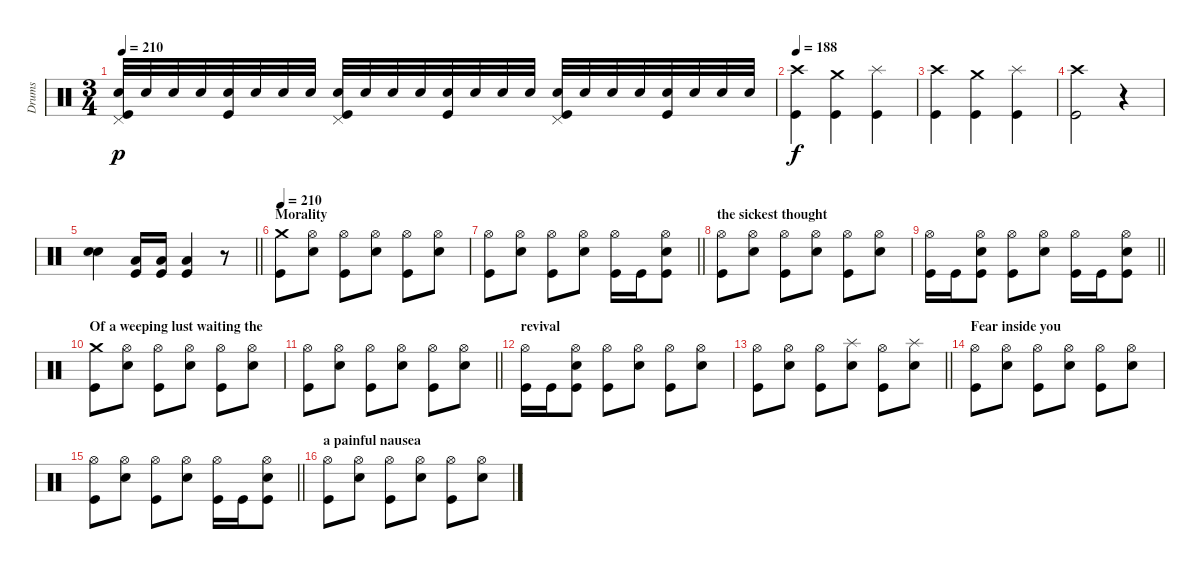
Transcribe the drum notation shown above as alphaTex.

\track ("Drums" "Drums") {instrument percussion}
\staff {score}
\articulation defaults
\ts (3 4)
\tempo 210
\clef neutral
\ks c
("Snare (hit) 2" "Pedal Hi-Hat (hit)" "Kick (hit)").32{dy p} "Snare (hit) 2".32 "Snare (hit) 2".32 "Snare (hit) 2".32 ("Snare (hit) 2" "Kick (hit)").32 "Snare (hit) 2".32 "Snare (hit) 2".32 "Snare (hit) 2".32 ("Snare (hit) 2" "Pedal Hi-Hat (hit)" "Kick (hit)").32 "Snare (hit) 2".32 "Snare (hit) 2".32 "Snare (hit) 2".32 ("Snare (hit) 2" "Kick (hit)").32 "Snare (hit) 2".32 "Snare (hit) 2".32 "Snare (hit) 2".32 ("Snare (hit) 2" "Pedal Hi-Hat (hit)" "Kick (hit)").32 "Snare (hit) 2".32 "Snare (hit) 2".32 "Snare (hit) 2".32 ("Snare (hit) 2" "Kick (hit)").32 "Snare (hit) 2".32 "Snare (hit) 2".32 "Snare (hit) 2".32 |
\tempo 188
("Crash high (hit)" "Kick (hit)").4{dy f} ("Crash medium (hit)" "Kick (hit)").4 ("Splash (hit)" "Kick (hit)").4 |
("Crash high (hit)" "Kick (hit)").4 ("Crash medium (hit)" "Kick (hit)").4 ("Splash (hit)" "Kick (hit)").4 |
("Crash high (hit)" "Kick (hit)").2 r.4 |
\barLineRight lightlight
("Snare (hit) 2" "Snare (hit) 2").4 ("Low Tom (hit)" "Kick (hit)").16 ("Low Tom (hit)" "Kick (hit)").16 ("Low Tom (hit)" "Kick (hit)").4 r.8 |
\section ("" "Morality")
\tempo 210
("Crash medium (hit)" "Kick (hit)").8 ("Hi-Hat (open)" "Snare (hit) 2").8 ("Hi-Hat (open)" "Kick (hit)").8 ("Hi-Hat (open)" "Snare (hit) 2").8 ("Hi-Hat (open)" "Kick (hit)").8 ("Hi-Hat (open)" "Snare (hit) 2").8 |
\barLineRight lightlight
("Hi-Hat (open)" "Kick (hit)").8 ("Hi-Hat (open)" "Snare (hit) 2").8 ("Hi-Hat (open)" "Kick (hit)").8 ("Hi-Hat (open)" "Snare (hit) 2").8 ("Hi-Hat (open)" "Kick (hit)").16 "Kick (hit)".16 ("Hi-Hat (open)" "Snare (hit) 2" "Kick (hit)").8 |
\section ("" "the sickest thought")
("Hi-Hat (open)" "Kick (hit)").8 ("Hi-Hat (open)" "Snare (hit) 2").8 ("Hi-Hat (open)" "Kick (hit)").8 ("Hi-Hat (open)" "Snare (hit) 2").8 ("Hi-Hat (open)" "Kick (hit)").8 ("Hi-Hat (open)" "Snare (hit) 2").8 |
\barLineRight lightlight
("Hi-Hat (open)" "Kick (hit)").16 "Kick (hit)".16 ("Hi-Hat (open)" "Snare (hit) 2" "Kick (hit)").8 ("Hi-Hat (open)" "Kick (hit)").8 ("Hi-Hat (open)" "Snare (hit) 2").8 ("Hi-Hat (open)" "Kick (hit)").16 "Kick (hit)".16 ("Hi-Hat (open)" "Snare (hit) 2" "Kick (hit)").8 |
\section ("" "Of a weeping lust waiting the ")
("Crash medium (hit)" "Kick (hit)").8 ("Hi-Hat (open)" "Snare (hit) 2").8 ("Hi-Hat (open)" "Kick (hit)").8 ("Hi-Hat (open)" "Snare (hit) 2").8 ("Hi-Hat (open)" "Kick (hit)").8 ("Hi-Hat (open)" "Snare (hit) 2").8 |
\barLineRight lightlight
("Hi-Hat (open)" "Kick (hit)").8 ("Hi-Hat (open)" "Snare (hit) 2").8 ("Hi-Hat (open)" "Kick (hit)").8 ("Hi-Hat (open)" "Snare (hit) 2").8 ("Hi-Hat (open)" "Kick (hit)").8 ("Hi-Hat (open)" "Snare (hit) 2").8 |
\section ("" "revival")
("Hi-Hat (open)" "Kick (hit)").16 "Kick (hit)".16 ("Hi-Hat (open)" "Snare (hit) 2" "Kick (hit)").8 ("Hi-Hat (open)" "Kick (hit)").8 ("Hi-Hat (open)" "Snare (hit) 2").8 ("Hi-Hat (open)" "Kick (hit)").8 ("Hi-Hat (open)" "Snare (hit) 2").8 |
\barLineRight lightlight
("Hi-Hat (open)" "Kick (hit)").8 ("Hi-Hat (open)" "Snare (hit) 2").8 ("Hi-Hat (open)" "Kick (hit)").8 ("Splash (hit)" "Snare (hit) 2").8 ("Hi-Hat (open)" "Kick (hit)").8 ("Splash (hit)" "Snare (hit) 2").8 |
\section ("" "Fear inside you ")
("Hi-Hat (open)" "Kick (hit)").8 ("Hi-Hat (open)" "Snare (hit) 2").8 ("Hi-Hat (open)" "Kick (hit)").8 ("Hi-Hat (open)" "Snare (hit) 2").8 ("Hi-Hat (open)" "Kick (hit)").8 ("Hi-Hat (open)" "Snare (hit) 2").8 |
\barLineRight lightlight
("Hi-Hat (open)" "Kick (hit)").8 ("Hi-Hat (open)" "Snare (hit) 2").8 ("Hi-Hat (open)" "Kick (hit)").8 ("Hi-Hat (open)" "Snare (hit) 2").8 ("Hi-Hat (open)" "Kick (hit)").16 "Kick (hit)".16 ("Hi-Hat (open)" "Snare (hit) 2" "Kick (hit)").8 |
\section ("" "a painful nausea")
("Hi-Hat (open)" "Kick (hit)").8 ("Hi-Hat (open)" "Snare (hit) 2").8 ("Hi-Hat (open)" "Kick (hit)").8 ("Hi-Hat (open)" "Snare (hit) 2").8 ("Hi-Hat (open)" "Kick (hit)").8 ("Hi-Hat (open)" "Snare (hit) 2").8
